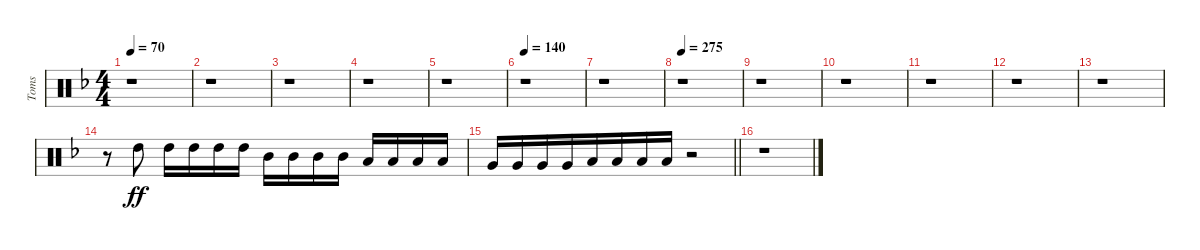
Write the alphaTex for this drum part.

\track ("Toms" "Toms") {instrument percussion}
\staff {score}
\articulation defaults
\ts (4 4)
\tempo 70
\clef neutral
\ks dminor
r.1{dy ff} |
r.1 |
r.1 |
r.1 |
r.1 |
\tempo 140
r.1 |
r.1 |
\tempo 275
r.1 |
r.1 |
r.1 |
r.1 |
r.1 |
r.1 |
r.8{balance 12} "High Tom (hit)".8 "High Tom (hit)".16 "High Tom (hit)".16 "High Tom (hit)".16 "High Tom (hit)".16 "Mid Tom (hit)".16{balance 10} "Mid Tom (hit)".16 "Mid Tom (hit)".16 "Mid Tom (hit)".16 "Low Tom (hit)".16{balance 8} "Low Tom (hit)".16 "Low Tom (hit)".16 "Low Tom (hit)".16 |
\barLineRight lightlight "Very Low Tom (hit)".16{balance 6} "Very Low Tom (hit)".16 "Very Low Tom (hit)".16 "Very Low Tom (hit)".16{beam merge} "Low Floor Tom (hit)".16{balance 4} "Low Floor Tom (hit)".16 "Low Floor Tom (hit)".16 "Low Floor Tom (hit)".16
r.2 |
r.1
